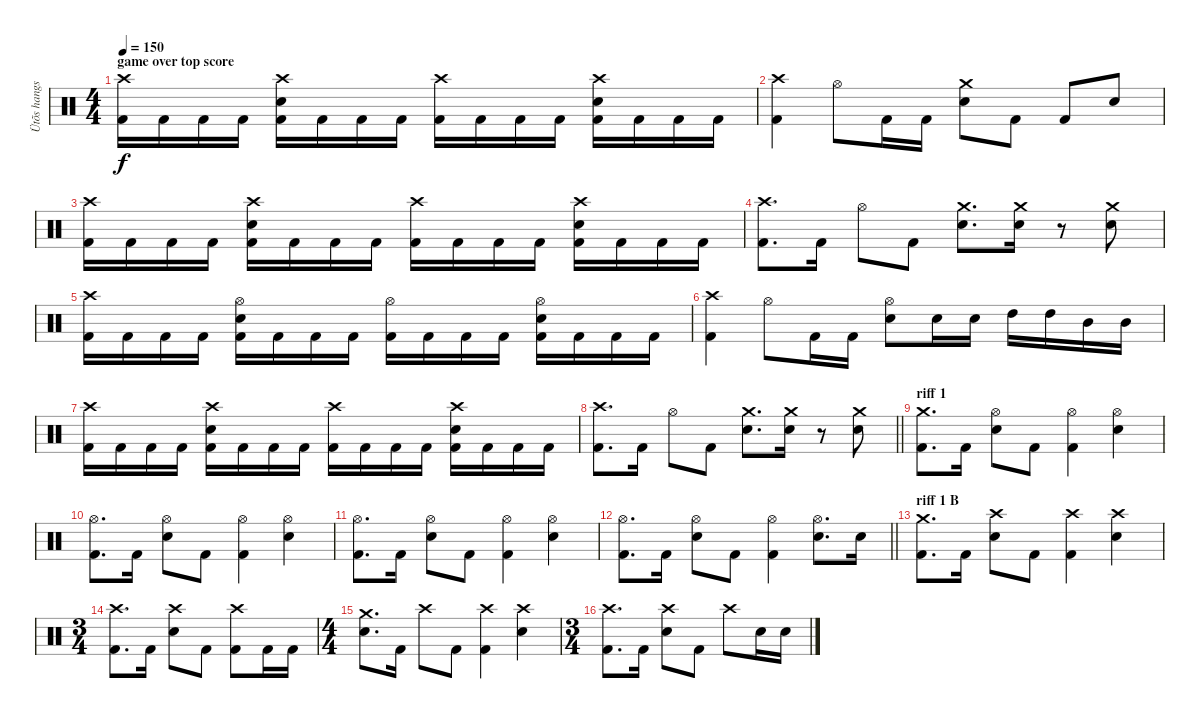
\track ("Ütõs hangszer" "Ütõs hangs") {instrument percussion}
\staff {score}
\articulation defaults
\ts (4 4)
\section ("" "game over top score")
\tempo 150
\clef neutral
\ks c
("Crash high (hit)" "Kick (hit) 2").16{dy f} "Kick (hit) 2".16 "Kick (hit) 2".16 "Kick (hit) 2".16 ("Crash high (hit)" "Electric Snare (hit)" "Kick (hit) 2").16 "Kick (hit) 2".16 "Kick (hit) 2".16 "Kick (hit) 2".16 ("Crash high (hit)" "Kick (hit) 2").16 "Kick (hit) 2".16 "Kick (hit) 2".16 "Kick (hit) 2".16 ("Crash high (hit)" "Electric Snare (hit)" "Kick (hit) 2").16 "Kick (hit) 2".16 "Kick (hit) 2".16 "Kick (hit) 2".16 |
("Crash high (hit)" "Kick (hit) 2").4 "Hi-Hat (open)".8 "Kick (hit) 2".16 "Kick (hit) 2".16 ("Crash medium (hit)" "Electric Snare (hit)").8 "Kick (hit) 2".8 "Kick (hit) 2".8 "Electric Snare (hit)".8 |
("Crash high (hit)" "Kick (hit) 2").16 "Kick (hit) 2".16 "Kick (hit) 2".16 "Kick (hit) 2".16 ("Crash high (hit)" "Electric Snare (hit)" "Kick (hit) 2").16 "Kick (hit) 2".16 "Kick (hit) 2".16 "Kick (hit) 2".16 ("Crash high (hit)" "Kick (hit) 2").16 "Kick (hit) 2".16 "Kick (hit) 2".16 "Kick (hit) 2".16 ("Crash high (hit)" "Electric Snare (hit)" "Kick (hit) 2").16 "Kick (hit) 2".16 "Kick (hit) 2".16 "Kick (hit) 2".16 |
("Crash high (hit)" "Kick (hit) 2").8{d} "Kick (hit) 2".16 "Hi-Hat (open)".8 "Kick (hit) 2".8 ("Crash medium (hit)" "Electric Snare (hit)").8{d} ("Crash medium (hit)" "Electric Snare (hit)").16 r.8 ("Crash medium (hit)" "Electric Snare (hit)").8 |
("Crash high (hit)" "Kick (hit) 2").16 "Kick (hit) 2".16 "Kick (hit) 2".16 "Kick (hit) 2".16 ("Hi-Hat (open)" "Electric Snare (hit)" "Kick (hit) 2").16 "Kick (hit) 2".16 "Kick (hit) 2".16 "Kick (hit) 2".16 ("Hi-Hat (open)" "Kick (hit) 2").16 "Kick (hit) 2".16 "Kick (hit) 2".16 "Kick (hit) 2".16 ("Hi-Hat (open)" "Electric Snare (hit)" "Kick (hit) 2").16 "Kick (hit) 2".16 "Kick (hit) 2".16 "Kick (hit) 2".16 |
("Crash high (hit)" "Kick (hit) 2").4 "Hi-Hat (open)".8 "Kick (hit) 2".16 "Kick (hit) 2".16 ("Hi-Hat (open)" "Electric Snare (hit)").8 "Electric Snare (hit)".16 "Electric Snare (hit)".16 "High Tom (hit)".16 "High Tom (hit)".16 "Mid Tom (hit)".16 "Mid Tom (hit)".16 |
("Crash high (hit)" "Kick (hit) 2").16 "Kick (hit) 2".16 "Kick (hit) 2".16 "Kick (hit) 2".16 ("Crash high (hit)" "Electric Snare (hit)" "Kick (hit) 2").16 "Kick (hit) 2".16 "Kick (hit) 2".16 "Kick (hit) 2".16 ("Crash high (hit)" "Kick (hit) 2").16 "Kick (hit) 2".16 "Kick (hit) 2".16 "Kick (hit) 2".16 ("Crash high (hit)" "Electric Snare (hit)" "Kick (hit) 2").16 "Kick (hit) 2".16 "Kick (hit) 2".16 "Kick (hit) 2".16 |
\barLineRight lightlight
("Crash high (hit)" "Kick (hit) 2").8{d} "Kick (hit) 2".16 "Hi-Hat (open)".8 "Kick (hit) 2".8 ("Crash medium (hit)" "Electric Snare (hit)").8{d} ("Crash medium (hit)" "Electric Snare (hit)").16 r.8 ("Crash medium (hit)" "Electric Snare (hit)").8 |
\section ("" "riff 1")
("Crash medium (hit)" "Kick (hit) 2").8{d} "Kick (hit) 2".16 ("Hi-Hat (open)" "Electric Snare (hit)").8 "Kick (hit) 2".8 ("Hi-Hat (open)" "Kick (hit) 2").4 ("Hi-Hat (open)" "Electric Snare (hit)").4 |
("Hi-Hat (open)" "Kick (hit) 2").8{d} "Kick (hit) 2".16 ("Hi-Hat (open)" "Electric Snare (hit)").8 "Kick (hit) 2".8 ("Hi-Hat (open)" "Kick (hit) 2").4 ("Hi-Hat (open)" "Electric Snare (hit)").4 |
("Hi-Hat (open)" "Kick (hit) 2").8{d} "Kick (hit) 2".16 ("Hi-Hat (open)" "Electric Snare (hit)").8 "Kick (hit) 2".8 ("Hi-Hat (open)" "Kick (hit) 2").4 ("Hi-Hat (open)" "Electric Snare (hit)").4 |
\barLineRight lightlight
("Hi-Hat (open)" "Kick (hit) 2").8{d} "Kick (hit) 2".16 ("Hi-Hat (open)" "Electric Snare (hit)").8 "Kick (hit) 2".8 ("Hi-Hat (open)" "Kick (hit) 2").4 ("Hi-Hat (open)" "Electric Snare (hit)").8{d} "Electric Snare (hit)".16 |
\section ("" "riff 1 B")
("Crash medium (hit)" "Kick (hit) 2").8{d} "Kick (hit) 2".16 ("Crash high (hit)" "Electric Snare (hit)").8 "Kick (hit) 2".8 ("Crash high (hit)" "Kick (hit) 2").4 ("Crash high (hit)" "Electric Snare (hit)").4 |
\ts (3 4)
("Crash high (hit)" "Kick (hit) 2").8{d} "Kick (hit) 2".16 ("Crash high (hit)" "Electric Snare (hit)").8 "Kick (hit) 2".8 ("Crash high (hit)" "Kick (hit) 2").8 "Kick (hit) 2".16 "Kick (hit) 2".16 |
\ts (4 4)
("Crash medium (hit)" "Electric Snare (hit)").8{d} "Kick (hit) 2".16 "Crash high (hit)".8 "Kick (hit) 2".8 ("Crash high (hit)" "Kick (hit) 2").4 ("Crash high (hit)" "Electric Snare (hit)").4 |
\ts (3 4)
("Crash high (hit)" "Kick (hit) 2").8{d} "Kick (hit) 2".16 ("Crash high (hit)" "Electric Snare (hit)").8 "Kick (hit) 2".8 "Crash high (hit)".8 "Electric Snare (hit)".16 "Electric Snare (hit)".16
